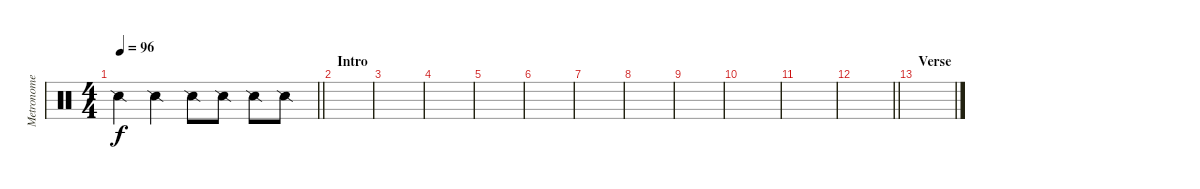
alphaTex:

\track ("Metronome" "Metronome") {instrument percussion}
\staff {score}
\articulation defaults
\ts (4 4)
\tempo 96
\clef neutral
\barLineRight lightlight
\ks c "Snare (side stick) 2".4{dy f} "Snare (side stick) 2".4 "Snare (side stick) 2".8 "Snare (side stick) 2".8 "Snare (side stick) 2".8 "Snare (side stick) 2".8
|
\section ("" "Intro")
|
|
|
|
|
|
|
|
|
|
\barLineRight lightlight
|
\section ("" "Verse")
